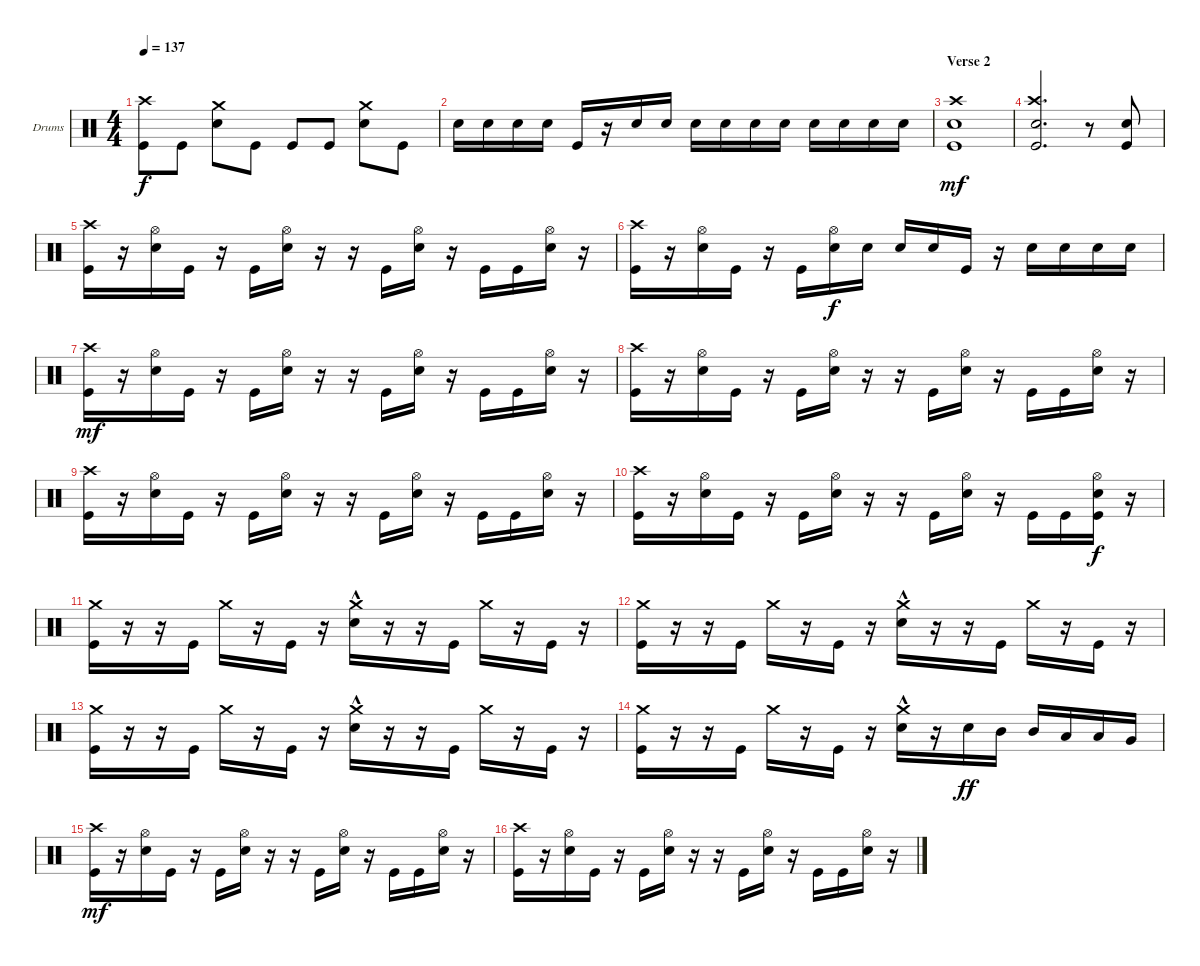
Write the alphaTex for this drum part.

\defaultSystemsLayout 4
\bracketExtendMode groupsimilarinstruments
\firstSystemTrackNameOrientation horizontal
\otherSystemsTrackNameOrientation horizontal
\track ("Drumkit - Paul" "Drums") {instrument percussion}
\staff {score}
\articulation defaults
\ts (4 4)
\tempo 137
\clef neutral
\ks c
("Kick (hit)" "Crash high (hit)").8{dy f} "Kick (hit)".8 ("Snare (hit) 2" "Crash medium (hit)").8 "Kick (hit)".8 "Kick (hit)".8 "Kick (hit)".8 ("Snare (hit) 2" "Crash medium (hit)").8 "Kick (hit)".8 |
"Snare (hit) 2".16 "Snare (hit) 2".16 "Snare (hit) 2".16 "Snare (hit) 2".16 "Kick (hit)".16 r.16 "Snare (hit) 2".16 "Snare (hit) 2".16 "Snare (hit) 2".16 "Snare (hit) 2".16 "Snare (hit) 2".16 "Snare (hit) 2".16 "Snare (hit) 2".16 "Snare (hit) 2".16 "Snare (hit) 2".16 "Snare (hit) 2".16 |
\section ("" "Verse 2")
("Kick (hit)" "Snare (hit) 2" "Crash high (hit)").1{dy mf} |
("Kick (hit)" "Snare (hit) 2" "Crash high (hit)").2{d} r.8 ("Kick (hit)" "Snare (hit) 2").8 |
("Crash high (hit)" "Kick (hit)").16 r.16 ("Snare (hit) 2" "Hi-Hat (open)").16 "Kick (hit)".16 r.16 "Kick (hit)".16 ("Snare (hit) 2" "Hi-Hat (open)").16 r.16 r.16 "Kick (hit)".16 ("Snare (hit) 2" "Hi-Hat (open)").16 r.16 "Kick (hit)".16 "Kick (hit)".16 ("Snare (hit) 2" "Hi-Hat (open)").16 r.16 |
("Crash high (hit)" "Kick (hit)").16 r.16 ("Snare (hit) 2" "Hi-Hat (open)").16 "Kick (hit)".16 r.16 "Kick (hit)".16 ("Snare (hit) 2" "Hi-Hat (open)").16{dy f} "Snare (hit) 2".16 "Snare (hit) 2".16 "Snare (hit) 2".16 "Kick (hit)".16 r.16 "Snare (hit) 2".16 "Snare (hit) 2".16 "Snare (hit) 2".16 "Snare (hit) 2".16 |
("Crash high (hit)" "Kick (hit)").16{dy mf} r.16 ("Snare (hit) 2" "Hi-Hat (open)").16 "Kick (hit)".16 r.16 "Kick (hit)".16 ("Snare (hit) 2" "Hi-Hat (open)").16 r.16 r.16 "Kick (hit)".16 ("Snare (hit) 2" "Hi-Hat (open)").16 r.16 "Kick (hit)".16 "Kick (hit)".16 ("Snare (hit) 2" "Hi-Hat (open)").16 r.16 |
("Crash high (hit)" "Kick (hit)").16 r.16 ("Snare (hit) 2" "Hi-Hat (open)").16 "Kick (hit)".16 r.16 "Kick (hit)".16 ("Snare (hit) 2" "Hi-Hat (open)").16 r.16 r.16 "Kick (hit)".16 ("Snare (hit) 2" "Hi-Hat (open)").16 r.16 "Kick (hit)".16 "Kick (hit)".16 ("Snare (hit) 2" "Hi-Hat (open)").16 r.16 |
("Crash high (hit)" "Kick (hit)").16 r.16 ("Snare (hit) 2" "Hi-Hat (open)").16 "Kick (hit)".16 r.16 "Kick (hit)".16 ("Snare (hit) 2" "Hi-Hat (open)").16 r.16 r.16 "Kick (hit)".16 ("Snare (hit) 2" "Hi-Hat (open)").16 r.16 "Kick (hit)".16 "Kick (hit)".16 ("Snare (hit) 2" "Hi-Hat (open)").16 r.16 |
("Crash high (hit)" "Kick (hit)").16 r.16 ("Snare (hit) 2" "Hi-Hat (open)").16 "Kick (hit)".16 r.16 "Kick (hit)".16 ("Snare (hit) 2" "Hi-Hat (open)").16 r.16 r.16 "Kick (hit)".16 ("Snare (hit) 2" "Hi-Hat (open)").16 r.16 "Kick (hit)".16 "Kick (hit)".16 ("Snare (hit) 2" "Hi-Hat (open)" "Kick (hit)").16{dy f} r.16 |
("Kick (hit)" "Crash medium (hit)").16 r.16 r.16 "Kick (hit)".16 "Crash medium (hit)".16 r.16 "Kick (hit)".16 r.16 ("Snare (hit) 2"{hac} "Crash medium (hit)").16 r.16 r.16 "Kick (hit)".16 "Crash medium (hit)".16 r.16 "Kick (hit)".16 r.16 |
("Kick (hit)" "Crash medium (hit)").16 r.16 r.16 "Kick (hit)".16 "Crash medium (hit)".16 r.16 "Kick (hit)".16 r.16 ("Snare (hit) 2"{hac} "Crash medium (hit)").16 r.16 r.16 "Kick (hit)".16 "Crash medium (hit)".16 r.16 "Kick (hit)".16 r.16 |
("Kick (hit)" "Crash medium (hit)").16 r.16 r.16 "Kick (hit)".16 "Crash medium (hit)".16 r.16 "Kick (hit)".16 r.16 ("Snare (hit) 2"{hac} "Crash medium (hit)").16 r.16 r.16 "Kick (hit)".16 "Crash medium (hit)".16 r.16 "Kick (hit)".16 r.16 |
("Kick (hit)" "Crash medium (hit)").16 r.16 r.16 "Kick (hit)".16 "Crash medium (hit)".16 r.16 "Kick (hit)".16 r.16 ("Snare (hit) 2"{hac} "Crash medium (hit)").16 r.16 "Snare (hit) 2".16{dy ff} "Mid Tom (hit)".16 "Mid Tom (hit)".16 "Low Tom (hit)".16 "Low Tom (hit)".16 "Very Low Tom (hit)".16 |
("Crash high (hit)" "Kick (hit)").16{dy mf} r.16 ("Snare (hit) 2" "Hi-Hat (open)").16 "Kick (hit)".16 r.16 "Kick (hit)".16 ("Snare (hit) 2" "Hi-Hat (open)").16 r.16 r.16 "Kick (hit)".16 ("Snare (hit) 2" "Hi-Hat (open)").16 r.16 "Kick (hit)".16 "Kick (hit)".16 ("Snare (hit) 2" "Hi-Hat (open)").16 r.16 |
("Crash high (hit)" "Kick (hit)").16 r.16 ("Snare (hit) 2" "Hi-Hat (open)").16 "Kick (hit)".16 r.16 "Kick (hit)".16 ("Snare (hit) 2" "Hi-Hat (open)").16 r.16 r.16 "Kick (hit)".16 ("Snare (hit) 2" "Hi-Hat (open)").16 r.16 "Kick (hit)".16 "Kick (hit)".16 ("Snare (hit) 2" "Hi-Hat (open)").16 r.16
